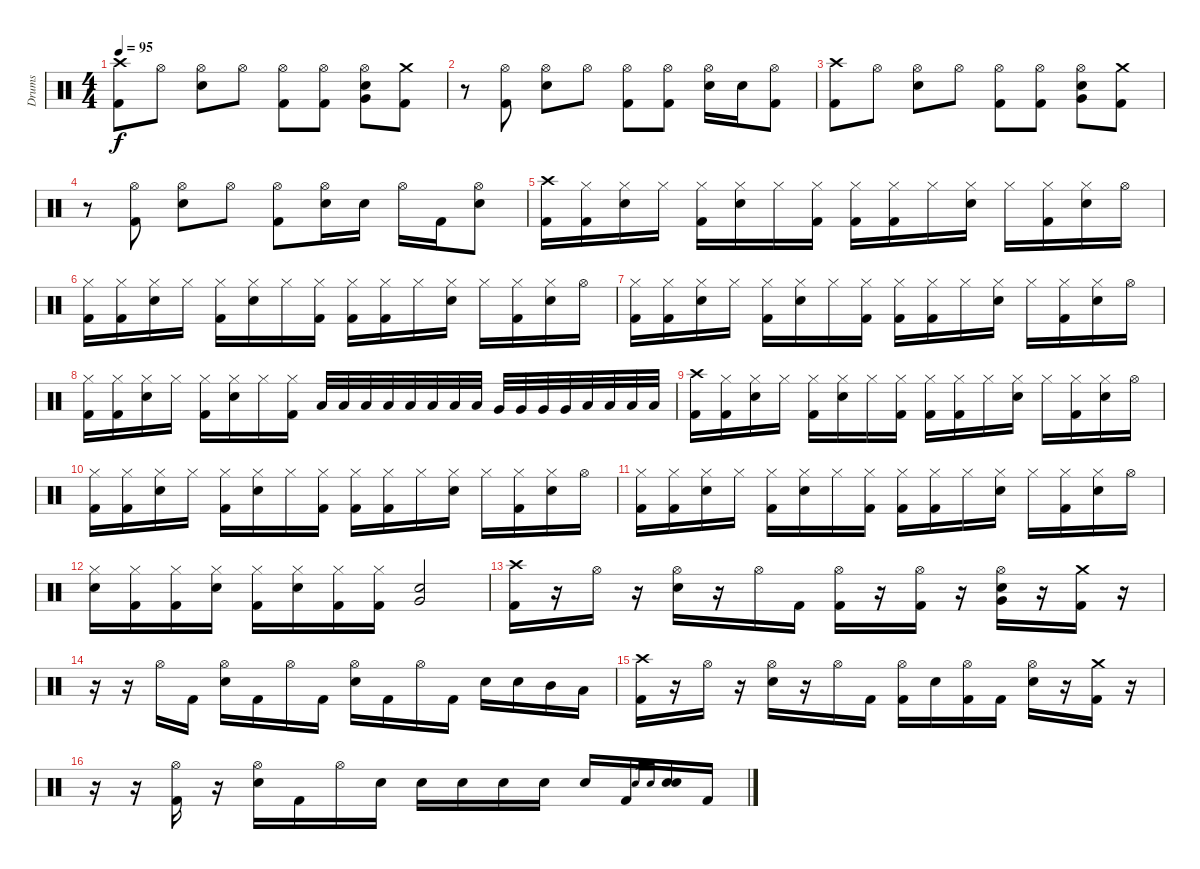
\track ("Drums" "Drums") {instrument percussion}
\staff {score}
\articulation defaults
\ts (4 4)
\tempo 95
\clef neutral
\ks c
("Crash high (hit)" "Kick (hit) 2").8{dy f} "Hi-Hat (open)".8 ("Hi-Hat (open)" "Electric Snare (hit)").8 "Hi-Hat (open)".8 ("Hi-Hat (open)" "Kick (hit) 2").8 ("Hi-Hat (open)" "Kick (hit) 2").8 ("Hi-Hat (open)" "Electric Snare (hit)" "Very Low Tom (hit)").8 ("Crash medium (hit)" "Kick (hit) 2").8 |
r.8 ("Hi-Hat (open)" "Kick (hit) 2").8 ("Hi-Hat (open)" "Electric Snare (hit)").8 "Hi-Hat (open)".8 ("Hi-Hat (open)" "Kick (hit) 2").8 ("Hi-Hat (open)" "Kick (hit) 2").8 ("Hi-Hat (open)" "Electric Snare (hit)").16 "Electric Snare (hit)".16 ("Hi-Hat (open)" "Kick (hit) 2").8 |
("Crash high (hit)" "Kick (hit) 2").8 "Hi-Hat (open)".8 ("Hi-Hat (open)" "Electric Snare (hit)").8 "Hi-Hat (open)".8 ("Hi-Hat (open)" "Kick (hit) 2").8 ("Hi-Hat (open)" "Kick (hit) 2").8 ("Hi-Hat (open)" "Electric Snare (hit)" "Very Low Tom (hit)").8 ("Crash medium (hit)" "Kick (hit) 2").8 |
r.8 ("Hi-Hat (open)" "Kick (hit) 2").8 ("Hi-Hat (open)" "Electric Snare (hit)").8 "Hi-Hat (open)".8 ("Hi-Hat (open)" "Kick (hit) 2").8 ("Hi-Hat (open)" "Electric Snare (hit)").16 "Electric Snare (hit)".16 "Hi-Hat (open)".16 "Kick (hit) 2".16 ("Hi-Hat (open)" "Electric Snare (hit)").8 |
("Crash high (hit)" "Kick (hit) 2").16 ("Hi-Hat (closed)" "Kick (hit) 2").16 ("Hi-Hat (closed)" "Electric Snare (hit)").16 "Hi-Hat (closed)".16 ("Hi-Hat (closed)" "Kick (hit) 2").16 ("Hi-Hat (closed)" "Electric Snare (hit)").16 "Hi-Hat (closed)".16 ("Hi-Hat (closed)" "Kick (hit) 2").16 ("Hi-Hat (closed)" "Kick (hit) 2").16 ("Hi-Hat (closed)" "Kick (hit) 2").16 "Hi-Hat (closed)".16 ("Hi-Hat (closed)" "Electric Snare (hit)").16 "Hi-Hat (closed)".16 ("Hi-Hat (closed)" "Kick (hit) 2").16 ("Hi-Hat (closed)" "Electric Snare (hit)").16 "Hi-Hat (open)".16 |
("Hi-Hat (closed)" "Kick (hit) 2").16 ("Hi-Hat (closed)" "Kick (hit) 2").16 ("Hi-Hat (closed)" "Electric Snare (hit)").16 "Hi-Hat (closed)".16 ("Hi-Hat (closed)" "Kick (hit) 2").16 ("Hi-Hat (closed)" "Electric Snare (hit)").16 "Hi-Hat (closed)".16 ("Hi-Hat (closed)" "Kick (hit) 2").16 ("Hi-Hat (closed)" "Kick (hit) 2").16 ("Hi-Hat (closed)" "Kick (hit) 2").16 "Hi-Hat (closed)".16 ("Hi-Hat (closed)" "Electric Snare (hit)").16 "Hi-Hat (closed)".16 ("Hi-Hat (closed)" "Kick (hit) 2").16 ("Hi-Hat (closed)" "Electric Snare (hit)").16 "Hi-Hat (open)".16 |
("Hi-Hat (closed)" "Kick (hit) 2").16 ("Hi-Hat (closed)" "Kick (hit) 2").16 ("Hi-Hat (closed)" "Electric Snare (hit)").16 "Hi-Hat (closed)".16 ("Hi-Hat (closed)" "Kick (hit) 2").16 ("Hi-Hat (closed)" "Electric Snare (hit)").16 "Hi-Hat (closed)".16 ("Hi-Hat (closed)" "Kick (hit) 2").16 ("Hi-Hat (closed)" "Kick (hit) 2").16 ("Hi-Hat (closed)" "Kick (hit) 2").16 "Hi-Hat (closed)".16 ("Hi-Hat (closed)" "Electric Snare (hit)").16 "Hi-Hat (closed)".16 ("Hi-Hat (closed)" "Kick (hit) 2").16 ("Hi-Hat (closed)" "Electric Snare (hit)").16 "Hi-Hat (open)".16 |
("Hi-Hat (closed)" "Kick (hit) 2").16 ("Hi-Hat (closed)" "Kick (hit) 2").16 ("Hi-Hat (closed)" "Electric Snare (hit)").16 "Hi-Hat (closed)".16 ("Hi-Hat (closed)" "Kick (hit) 2").16 ("Hi-Hat (closed)" "Electric Snare (hit)").16 "Hi-Hat (closed)".16 ("Hi-Hat (closed)" "Kick (hit) 2").16 "Low Tom (hit)".32 "Low Tom (hit)".32 "Low Tom (hit)".32 "Low Tom (hit)".32 "Low Tom (hit)".32 "Low Tom (hit)".32 "Low Tom (hit)".32 "Low Tom (hit)".32 "Very Low Tom (hit)".32 "Very Low Tom (hit)".32 "Very Low Tom (hit)".32 "Very Low Tom (hit)".32 "Low Floor Tom (hit)".32 "Low Floor Tom (hit)".32 "Low Floor Tom (hit)".32 "Low Floor Tom (hit)".32 |
("Crash high (hit)" "Kick (hit) 2").16 ("Hi-Hat (closed)" "Kick (hit) 2").16 ("Hi-Hat (closed)" "Electric Snare (hit)").16 "Hi-Hat (closed)".16 ("Hi-Hat (closed)" "Kick (hit) 2").16 ("Hi-Hat (closed)" "Electric Snare (hit)").16 "Hi-Hat (closed)".16 ("Hi-Hat (closed)" "Kick (hit) 2").16 ("Hi-Hat (closed)" "Kick (hit) 2").16 ("Hi-Hat (closed)" "Kick (hit) 2").16 "Hi-Hat (closed)".16 ("Hi-Hat (closed)" "Electric Snare (hit)").16 "Hi-Hat (closed)".16 ("Hi-Hat (closed)" "Kick (hit) 2").16 ("Hi-Hat (closed)" "Electric Snare (hit)").16 "Hi-Hat (open)".16 |
("Hi-Hat (closed)" "Kick (hit) 2").16 ("Hi-Hat (closed)" "Kick (hit) 2").16 ("Hi-Hat (closed)" "Electric Snare (hit)").16 "Hi-Hat (closed)".16 ("Hi-Hat (closed)" "Kick (hit) 2").16 ("Hi-Hat (closed)" "Electric Snare (hit)").16 "Hi-Hat (closed)".16 ("Hi-Hat (closed)" "Kick (hit) 2").16 ("Hi-Hat (closed)" "Kick (hit) 2").16 ("Hi-Hat (closed)" "Kick (hit) 2").16 "Hi-Hat (closed)".16 ("Hi-Hat (closed)" "Electric Snare (hit)").16 "Hi-Hat (closed)".16 ("Hi-Hat (closed)" "Kick (hit) 2").16 ("Hi-Hat (closed)" "Electric Snare (hit)").16 "Hi-Hat (open)".16 |
("Hi-Hat (closed)" "Kick (hit) 2").16 ("Hi-Hat (closed)" "Kick (hit) 2").16 ("Hi-Hat (closed)" "Electric Snare (hit)").16 "Hi-Hat (closed)".16 ("Hi-Hat (closed)" "Kick (hit) 2").16 ("Hi-Hat (closed)" "Electric Snare (hit)").16 "Hi-Hat (closed)".16 ("Hi-Hat (closed)" "Kick (hit) 2").16 ("Hi-Hat (closed)" "Kick (hit) 2").16 ("Hi-Hat (closed)" "Kick (hit) 2").16 "Hi-Hat (closed)".16 ("Hi-Hat (closed)" "Electric Snare (hit)").16 "Hi-Hat (closed)".16 ("Hi-Hat (closed)" "Kick (hit) 2").16 ("Hi-Hat (closed)" "Electric Snare (hit)").16 "Hi-Hat (open)".16 |
("Hi-Hat (closed)" "Electric Snare (hit)").16 ("Hi-Hat (closed)" "Kick (hit) 2").16 ("Hi-Hat (closed)" "Kick (hit) 2").16 ("Hi-Hat (closed)" "Electric Snare (hit)").16 ("Hi-Hat (closed)" "Kick (hit) 2").16 ("Hi-Hat (closed)" "Electric Snare (hit)").16 ("Hi-Hat (closed)" "Kick (hit) 2").16 ("Hi-Hat (closed)" "Kick (hit) 2").16 ("Electric Snare (hit)" "Very Low Tom (hit)").2 |
("Crash high (hit)" "Kick (hit) 2").16 r.16 "Hi-Hat (open)".16 r.16 ("Hi-Hat (open)" "Electric Snare (hit)").16 r.16 "Hi-Hat (open)".16 "Kick (hit) 2".16 ("Hi-Hat (open)" "Kick (hit) 2").16 r.16 ("Hi-Hat (open)" "Kick (hit) 2").16 r.16 ("Hi-Hat (open)" "Electric Snare (hit)" "Very Low Tom (hit)").16 r.16 ("Crash medium (hit)" "Kick (hit) 2").16 r.16 |
r.16 r.16 "Hi-Hat (open)".16 "Kick (hit) 2".16 ("Hi-Hat (open)" "Electric Snare (hit)").16 "Kick (hit) 2".16 "Hi-Hat (open)".16 "Kick (hit) 2".16 ("Hi-Hat (open)" "Electric Snare (hit)").16 "Kick (hit) 2".16 "Hi-Hat (open)".16 "Kick (hit) 2".16 "Electric Snare (hit)".16 "Electric Snare (hit)".16 "Mid Tom (hit)".16 "Low Tom (hit)".16 |
("Crash high (hit)" "Kick (hit) 2").16 r.16 "Hi-Hat (open)".16 r.16 ("Hi-Hat (open)" "Electric Snare (hit)").16 r.16 "Hi-Hat (open)".16 "Kick (hit) 2".16 ("Hi-Hat (open)" "Kick (hit) 2").16 "Electric Snare (hit)".16 ("Hi-Hat (open)" "Kick (hit) 2").16 "Kick (hit) 2".16 ("Hi-Hat (open)" "Electric Snare (hit)").16 r.16 ("Crash medium (hit)" "Kick (hit) 2").16 r.16 |
r.16 r.16 ("Hi-Hat (open)" "Kick (hit) 2").16 r.16 ("Hi-Hat (open)" "Electric Snare (hit)").16 "Kick (hit) 2".16 "Hi-Hat (open)".16 "Electric Snare (hit)".16 "Electric Snare (hit)".16 "Electric Snare (hit)".16 "Electric Snare (hit)".16 "Electric Snare (hit)".16 "Electric Snare (hit)".16 "Kick (hit) 2".16 "Electric Snare (hit)".16{gr} "Electric Snare (hit)".16{gr} ("Electric Snare (hit)" "Electric Snare (hit)").16 "Kick (hit) 2".16
